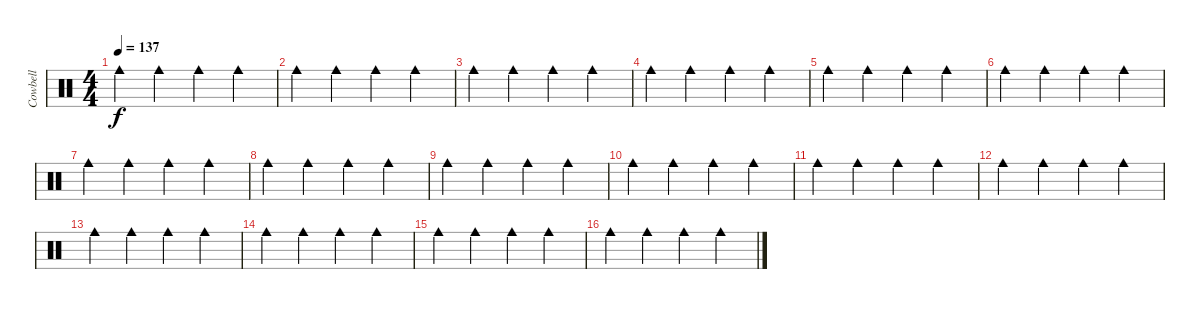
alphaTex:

\track ("Cowbell" "Cowbell") {instrument percussion}
\staff {score}
\articulation defaults
\ts (4 4)
\tempo 137
\clef neutral
\ks c "Cowbell medium (hit)".4{dy f} "Cowbell medium (hit)".4 "Cowbell medium (hit)".4 "Cowbell medium (hit)".4
|
"Cowbell medium (hit)".4 "Cowbell medium (hit)".4 "Cowbell medium (hit)".4 "Cowbell medium (hit)".4 |
"Cowbell medium (hit)".4 "Cowbell medium (hit)".4 "Cowbell medium (hit)".4 "Cowbell medium (hit)".4 |
"Cowbell medium (hit)".4 "Cowbell medium (hit)".4 "Cowbell medium (hit)".4 "Cowbell medium (hit)".4 |
"Cowbell medium (hit)".4 "Cowbell medium (hit)".4 "Cowbell medium (hit)".4 "Cowbell medium (hit)".4 |
"Cowbell medium (hit)".4 "Cowbell medium (hit)".4 "Cowbell medium (hit)".4 "Cowbell medium (hit)".4 |
"Cowbell medium (hit)".4 "Cowbell medium (hit)".4 "Cowbell medium (hit)".4 "Cowbell medium (hit)".4 |
"Cowbell medium (hit)".4 "Cowbell medium (hit)".4 "Cowbell medium (hit)".4 "Cowbell medium (hit)".4 |
"Cowbell medium (hit)".4 "Cowbell medium (hit)".4 "Cowbell medium (hit)".4 "Cowbell medium (hit)".4 |
"Cowbell medium (hit)".4 "Cowbell medium (hit)".4 "Cowbell medium (hit)".4 "Cowbell medium (hit)".4 |
"Cowbell medium (hit)".4 "Cowbell medium (hit)".4 "Cowbell medium (hit)".4 "Cowbell medium (hit)".4 |
"Cowbell medium (hit)".4 "Cowbell medium (hit)".4 "Cowbell medium (hit)".4 "Cowbell medium (hit)".4 |
"Cowbell medium (hit)".4 "Cowbell medium (hit)".4 "Cowbell medium (hit)".4 "Cowbell medium (hit)".4 |
"Cowbell medium (hit)".4 "Cowbell medium (hit)".4 "Cowbell medium (hit)".4 "Cowbell medium (hit)".4 |
"Cowbell medium (hit)".4 "Cowbell medium (hit)".4 "Cowbell medium (hit)".4 "Cowbell medium (hit)".4 |
"Cowbell medium (hit)".4 "Cowbell medium (hit)".4 "Cowbell medium (hit)".4 "Cowbell medium (hit)".4
